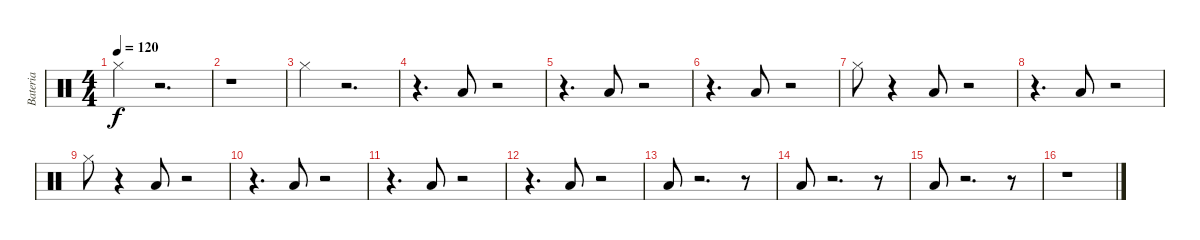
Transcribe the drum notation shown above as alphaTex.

\track ("Bateria" "Bateria") {instrument percussion}
\staff {score}
\articulation defaults
\ts (4 4)
\tempo 120
\clef neutral
\ks c "Hi-Hat (closed)".4{dy f}
r.2{d} |
r.1 |
"Hi-Hat (closed)".4 r.2{d} |
r.4{d} "Low Tom (hit)".8 r.2 |
r.4{d} "Low Tom (hit)".8 r.2 |
r.4{d} "Low Tom (hit)".8 r.2 |
"Hi-Hat (closed)".8 r.4 "Low Tom (hit)".8 r.2 |
r.4{d} "Low Tom (hit)".8 r.2 |
"Hi-Hat (closed)".8 r.4 "Low Tom (hit)".8 r.2 |
r.4{d} "Low Tom (hit)".8 r.2 |
r.4{d} "Low Tom (hit)".8 r.2 |
r.4{d} "Low Tom (hit)".8 r.2 |
"Low Tom (hit)".8 r.2{d} r.8 |
"Low Tom (hit)".8 r.2{d} r.8 |
"Low Tom (hit)".8 r.2{d} r.8 |
r.1
